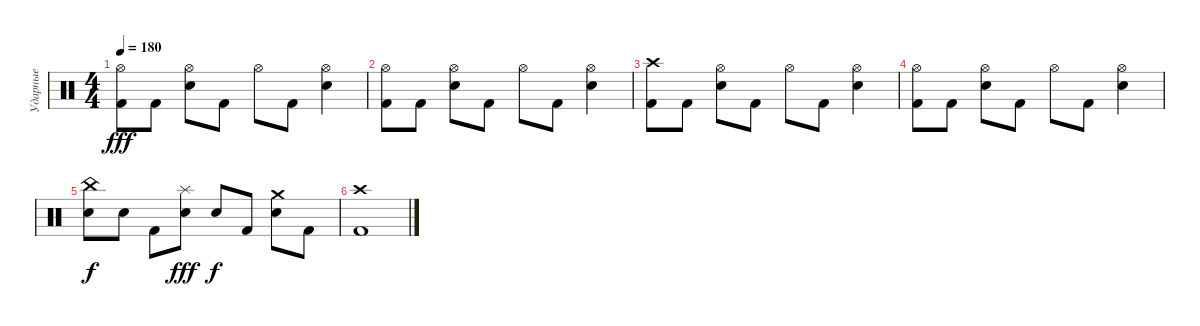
\track ("Ударные" "Ударные") {instrument percussion}
\staff {score}
\articulation defaults
\ts (4 4)
\tempo 180
\clef neutral
\ks c
("Hi-Hat (open)" "Kick (hit) 2").8{dy fff} "Kick (hit) 2".8 ("Hi-Hat (open)" "Snare (hit) 2").8 "Kick (hit) 2".8 "Hi-Hat (open)".8 "Kick (hit) 2".8 ("Hi-Hat (open)" "Snare (hit) 2").4 |
("Hi-Hat (open)" "Kick (hit) 2").8 "Kick (hit) 2".8 ("Hi-Hat (open)" "Snare (hit) 2").8 "Kick (hit) 2".8 "Hi-Hat (open)".8 "Kick (hit) 2".8 ("Hi-Hat (open)" "Snare (hit) 2").4 |
("Crash high (hit)" "Kick (hit) 2").8 "Kick (hit) 2".8 ("Hi-Hat (open)" "Snare (hit) 2").8 "Kick (hit) 2".8 "Hi-Hat (open)".8 "Kick (hit) 2".8 ("Hi-Hat (open)" "Snare (hit) 2").4 |
("Hi-Hat (open)" "Kick (hit) 2").8 "Kick (hit) 2".8 ("Hi-Hat (open)" "Snare (hit) 2").8 "Kick (hit) 2".8 "Hi-Hat (open)".8 "Kick (hit) 2".8 ("Hi-Hat (open)" "Snare (hit) 2").4 |
("China (hit)" "Snare (hit) 2").8{dy f} "Snare (hit) 2".8 "Kick (hit) 2".8 ("Splash (hit)" "Snare (hit) 2").8{dy fff} "Snare (hit) 2".8{dy f} "Kick (hit) 2".8 ("Crash medium (hit)" "Snare (hit) 2").8 "Kick (hit) 2".8 |
("Crash high (hit)" "Kick (hit) 2").1
